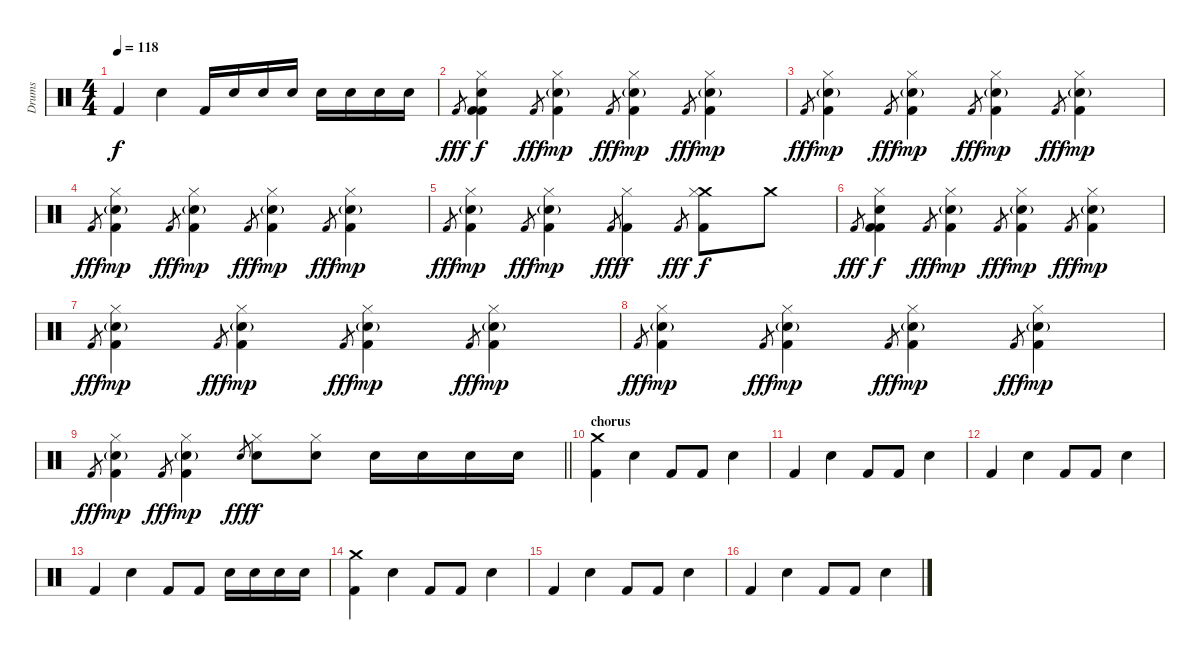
\track ("Drums" "Drums") {instrument percussion}
\staff {score}
\articulation defaults
\ts (4 4)
\tempo 118
\clef neutral
\ks c "Kick (hit) 2".4{dy f} "Snare (hit) 2".4 "Kick (hit) 2".16 "Snare (hit) 2".16 "Snare (hit) 2".16 "Snare (hit) 2".16 "Snare (hit) 2".16 "Snare (hit) 2".16 "Snare (hit) 2".16 "Snare (hit) 2".16
|
"Kick (hit) 2"{h x}.8{gr dy fff} ("Kick (hit) 2" "Snare (hit) 2" "Kick (hit) 2" "Hi-Hat (closed)").4{dy f} "Kick (hit) 2"{h x}.8{gr dy fff} ("Kick (hit) 2" "Snare (hit) 2"{g} "Hi-Hat (closed)").4{dy mp} "Kick (hit) 2"{h x}.8{gr dy fff} ("Kick (hit) 2" "Snare (hit) 2"{g} "Hi-Hat (closed)").4{dy mp} "Kick (hit) 2"{h x}.8{gr dy fff} ("Kick (hit) 2" "Snare (hit) 2"{g} "Hi-Hat (closed)").4{dy mp} |
"Kick (hit) 2"{h x}.8{gr dy fff} ("Kick (hit) 2" "Snare (hit) 2"{g} "Hi-Hat (closed)").4{dy mp} "Kick (hit) 2"{h x}.8{gr dy fff} ("Kick (hit) 2" "Snare (hit) 2"{g} "Hi-Hat (closed)").4{dy mp} "Kick (hit) 2"{h x}.8{gr dy fff} ("Kick (hit) 2" "Snare (hit) 2"{g} "Hi-Hat (closed)").4{dy mp} "Kick (hit) 2"{h x}.8{gr dy fff} ("Kick (hit) 2" "Snare (hit) 2"{g} "Hi-Hat (closed)").4{dy mp} |
"Kick (hit) 2"{h x}.8{gr dy fff} ("Kick (hit) 2" "Snare (hit) 2"{g} "Hi-Hat (closed)").4{dy mp} "Kick (hit) 2"{h x}.8{gr dy fff} ("Kick (hit) 2" "Snare (hit) 2"{g} "Hi-Hat (closed)").4{dy mp} "Kick (hit) 2"{h x}.8{gr dy fff} ("Kick (hit) 2" "Snare (hit) 2"{g} "Hi-Hat (closed)").4{dy mp} "Kick (hit) 2"{h x}.8{gr dy fff} ("Kick (hit) 2" "Snare (hit) 2"{g} "Hi-Hat (closed)").4{dy mp} |
"Kick (hit) 2"{h x}.8{gr dy fff} ("Kick (hit) 2" "Snare (hit) 2"{g} "Hi-Hat (closed)").4{dy mp} "Kick (hit) 2"{h x}.8{gr dy fff} ("Kick (hit) 2" "Snare (hit) 2"{g} "Hi-Hat (closed)").4{dy mp} "Kick (hit) 2"{h x}.8{gr dy fff} ("Kick (hit) 2" "Hi-Hat (closed)").4{dy f} "Kick (hit) 2"{h x}.8{gr dy fff} ("Kick (hit) 2" "Crash medium (hit)" "Hi-Hat (closed)").8{dy f} "Crash medium (hit)".8 |
"Kick (hit) 2"{h x}.8{gr dy fff} ("Kick (hit) 2" "Snare (hit) 2" "Kick (hit) 2" "Hi-Hat (closed)").4{dy f} "Kick (hit) 2"{h x}.8{gr dy fff} ("Kick (hit) 2" "Snare (hit) 2"{g} "Hi-Hat (closed)").4{dy mp} "Kick (hit) 2"{h x}.8{gr dy fff} ("Kick (hit) 2" "Snare (hit) 2"{g} "Hi-Hat (closed)").4{dy mp} "Kick (hit) 2"{h x}.8{gr dy fff} ("Kick (hit) 2" "Snare (hit) 2"{g} "Hi-Hat (closed)").4{dy mp} |
"Kick (hit) 2"{h x}.8{gr dy fff} ("Kick (hit) 2" "Snare (hit) 2"{g} "Hi-Hat (closed)").4{dy mp} "Kick (hit) 2"{h x}.8{gr dy fff} ("Kick (hit) 2" "Snare (hit) 2"{g} "Hi-Hat (closed)").4{dy mp} "Kick (hit) 2"{h x}.8{gr dy fff} ("Kick (hit) 2" "Snare (hit) 2"{g} "Hi-Hat (closed)").4{dy mp} "Kick (hit) 2"{h x}.8{gr dy fff} ("Kick (hit) 2" "Snare (hit) 2"{g} "Hi-Hat (closed)").4{dy mp} |
"Kick (hit) 2"{h x}.8{gr dy fff} ("Kick (hit) 2" "Snare (hit) 2"{g} "Hi-Hat (closed)").4{dy mp} "Kick (hit) 2"{h x}.8{gr dy fff} ("Kick (hit) 2" "Snare (hit) 2"{g} "Hi-Hat (closed)").4{dy mp} "Kick (hit) 2"{h x}.8{gr dy fff} ("Kick (hit) 2" "Snare (hit) 2"{g} "Hi-Hat (closed)").4{dy mp} "Kick (hit) 2"{h x}.8{gr dy fff} ("Kick (hit) 2" "Snare (hit) 2"{g} "Hi-Hat (closed)").4{dy mp} |
\barLineRight lightlight "Kick (hit) 2"{h x}.8{gr dy fff}
("Kick (hit) 2" "Snare (hit) 2"{g} "Hi-Hat (closed)").4{dy mp} "Kick (hit) 2"{h x}.8{gr dy fff} ("Kick (hit) 2" "Snare (hit) 2"{g} "Hi-Hat (closed)").4{dy mp} "Snare (hit) 2"{h x}.8{gr dy fff} ("Snare (hit) 2" "Hi-Hat (closed)").8{dy f} ("Snare (hit) 2" "Hi-Hat (closed)").8 "Snare (hit) 2".16 "Snare (hit) 2".16 "Snare (hit) 2".16 "Snare (hit) 2".16 |
\section ("" "chorus")
("Crash medium (hit)" "Kick (hit) 2").4 "Snare (hit) 2".4 "Kick (hit) 2".8 "Kick (hit) 2".8 "Snare (hit) 2".4 |
"Kick (hit) 2".4 "Snare (hit) 2".4 "Kick (hit) 2".8 "Kick (hit) 2".8 "Snare (hit) 2".4 |
"Kick (hit) 2".4 "Snare (hit) 2".4 "Kick (hit) 2".8 "Kick (hit) 2".8 "Snare (hit) 2".4 |
"Kick (hit) 2".4 "Snare (hit) 2".4 "Kick (hit) 2".8 "Kick (hit) 2".8 "Snare (hit) 2".16 "Snare (hit) 2".16 "Snare (hit) 2".16 "Snare (hit) 2".16 |
("Crash medium (hit)" "Kick (hit) 2").4 "Snare (hit) 2".4 "Kick (hit) 2".8 "Kick (hit) 2".8 "Snare (hit) 2".4 |
"Kick (hit) 2".4 "Snare (hit) 2".4 "Kick (hit) 2".8 "Kick (hit) 2".8 "Snare (hit) 2".4 |
"Kick (hit) 2".4 "Snare (hit) 2".4 "Kick (hit) 2".8 "Kick (hit) 2".8 "Snare (hit) 2".4
